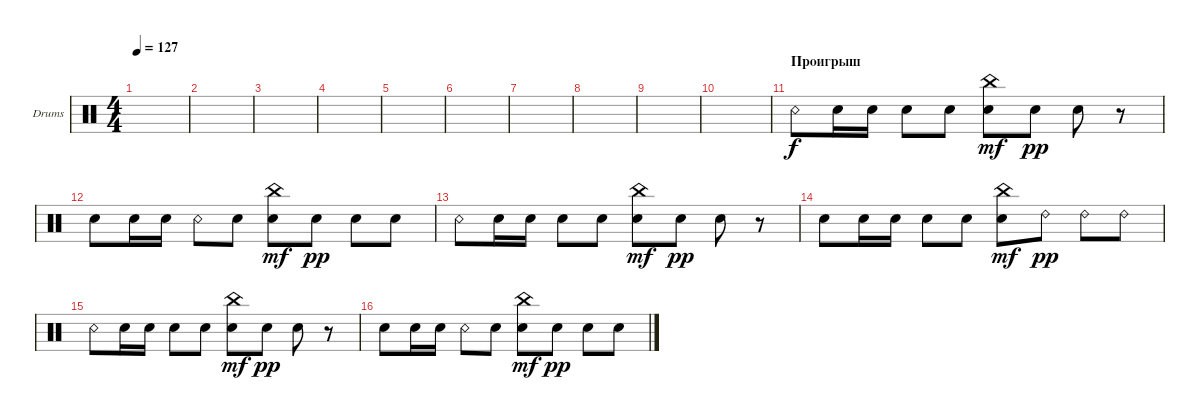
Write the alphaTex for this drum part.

\defaultSystemsLayout 4
\bracketExtendMode groupsimilarinstruments
\firstSystemTrackNameOrientation horizontal
\otherSystemsTrackNameOrientation horizontal
\track ("Drumkit" "Drums") {instrument percussion}
\staff {score}
\articulation defaults
\ts (4 4)
\tempo 127
\clef neutral
\ks c
|
|
|
|
|
|
|
|
|
|
\section ("" "Проигрыш")
"Snare (rim shot)".8 "Snare (hit) 2".16 "Snare (hit) 2".16 "Snare (hit) 2".8 "Snare (hit) 2".8 ("Snare (hit) 2" "China (hit)").8{dy mf} "Snare (hit) 2".8{dy pp} "Snare (hit) 2".8 r.8 |
"Snare (hit) 2".8 "Snare (hit) 2".16 "Snare (hit) 2".16 "Snare (rim shot)".8 "Snare (hit) 2".8 ("Snare (hit) 2" "China (hit)").8{dy mf} "Snare (hit) 2".8{dy pp} "Snare (hit) 2".8 "Snare (hit) 2".8 |
"Snare (rim shot)".8 "Snare (hit) 2".16 "Snare (hit) 2".16 "Snare (hit) 2".8 "Snare (hit) 2".8 ("Snare (hit) 2" "China (hit)").8{dy mf} "Snare (hit) 2".8{dy pp} "Snare (hit) 2".8 r.8 |
"Snare (hit) 2".8 "Snare (hit) 2".16 "Snare (hit) 2".16 "Snare (hit) 2".8 "Snare (hit) 2".8 ("Snare (hit) 2" "China (hit)").8{dy mf} "Ride (bell) 2".8{dy pp} "Ride (bell) 2".8 "Ride (bell) 2".8 |
"Snare (rim shot)".8 "Snare (hit) 2".16 "Snare (hit) 2".16 "Snare (hit) 2".8 "Snare (hit) 2".8 ("Snare (hit) 2" "China (hit)").8{dy mf} "Snare (hit) 2".8{dy pp} "Snare (hit) 2".8 r.8 |
"Snare (hit) 2".8 "Snare (hit) 2".16 "Snare (hit) 2".16 "Snare (rim shot)".8 "Snare (hit) 2".8 ("Snare (hit) 2" "China (hit)").8{dy mf} "Snare (hit) 2".8{dy pp} "Snare (hit) 2".8 "Snare (hit) 2".8
